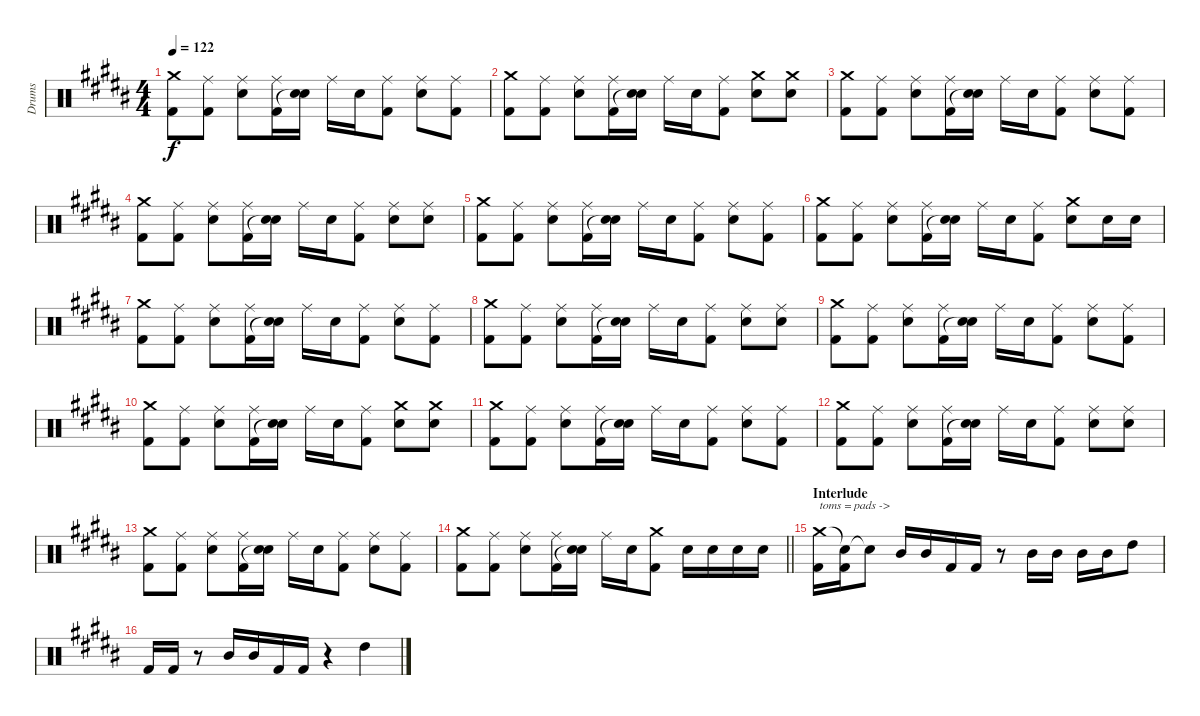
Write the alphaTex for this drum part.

\track ("Drums" "Drums") {instrument percussion}
\staff {score}
\articulation defaults
\ts (4 4)
\tempo 122
\clef neutral
\ks g#minor
("Crash medium (hit)" "Kick (hit) 2").8{dy f} ("Ride (middle)" "Kick (hit) 2").8 ("Ride (middle)" "Electric Snare (hit)").8 ("Ride (middle)" "Kick (hit) 2").16 ("Electric Snare (hit)" "Snare (hit)"{t}).16 "Ride (middle)".16 "Electric Snare (hit)".16 ("Ride (middle)" "Kick (hit) 2").8 ("Ride (middle)" "Electric Snare (hit)").8 ("Ride (middle)" "Kick (hit) 2").8 |
("Crash medium (hit)" "Kick (hit) 2").8 ("Ride (middle)" "Kick (hit) 2").8 ("Ride (middle)" "Electric Snare (hit)").8 ("Ride (middle)" "Kick (hit) 2").16 ("Electric Snare (hit)" "Snare (hit)"{t}).16 "Ride (middle)".16 "Electric Snare (hit)".16 ("Ride (middle)" "Kick (hit) 2").8 ("Crash medium (hit)" "Electric Snare (hit)").8 ("Crash medium (hit)" "Electric Snare (hit)").8 |
("Crash medium (hit)" "Kick (hit) 2").8 ("Ride (middle)" "Kick (hit) 2").8 ("Ride (middle)" "Electric Snare (hit)").8 ("Ride (middle)" "Kick (hit) 2").16 ("Electric Snare (hit)" "Snare (hit)"{t}).16 "Ride (middle)".16 "Electric Snare (hit)".16 ("Ride (middle)" "Kick (hit) 2").8 ("Ride (middle)" "Electric Snare (hit)").8 ("Ride (middle)" "Kick (hit) 2").8 |
("Crash medium (hit)" "Kick (hit) 2").8 ("Ride (middle)" "Kick (hit) 2").8 ("Ride (middle)" "Electric Snare (hit)").8 ("Ride (middle)" "Kick (hit) 2").16 ("Electric Snare (hit)" "Snare (hit)"{t}).16 "Ride (middle)".16 "Electric Snare (hit)".16 ("Ride (middle)" "Kick (hit) 2").8 ("Ride (middle)" "Electric Snare (hit)").8 ("Ride (middle)" "Electric Snare (hit)").8 |
("Crash medium (hit)" "Kick (hit) 2").8 ("Ride (middle)" "Kick (hit) 2").8 ("Ride (middle)" "Electric Snare (hit)").8 ("Ride (middle)" "Kick (hit) 2").16 ("Electric Snare (hit)" "Snare (hit)"{t}).16 "Ride (middle)".16 "Electric Snare (hit)".16 ("Ride (middle)" "Kick (hit) 2").8 ("Ride (middle)" "Electric Snare (hit)").8 ("Ride (middle)" "Kick (hit) 2").8 |
("Crash medium (hit)" "Kick (hit) 2").8 ("Ride (middle)" "Kick (hit) 2").8 ("Ride (middle)" "Electric Snare (hit)").8 ("Ride (middle)" "Kick (hit) 2").16 ("Electric Snare (hit)" "Snare (hit)"{t}).16 "Ride (middle)".16 "Electric Snare (hit)".16 ("Ride (middle)" "Kick (hit) 2").8 ("Crash medium (hit)" "Electric Snare (hit)").8 "Electric Snare (hit)".16 "Electric Snare (hit)".16 |
("Crash medium (hit)" "Kick (hit) 2").8 ("Ride (middle)" "Kick (hit) 2").8 ("Ride (middle)" "Electric Snare (hit)").8 ("Ride (middle)" "Kick (hit) 2").16 ("Electric Snare (hit)" "Snare (hit)"{t}).16 "Ride (middle)".16 "Electric Snare (hit)".16 ("Ride (middle)" "Kick (hit) 2").8 ("Ride (middle)" "Electric Snare (hit)").8 ("Ride (middle)" "Kick (hit) 2").8 |
("Crash medium (hit)" "Kick (hit) 2").8 ("Ride (middle)" "Kick (hit) 2").8 ("Ride (middle)" "Electric Snare (hit)").8 ("Ride (middle)" "Kick (hit) 2").16 ("Electric Snare (hit)" "Snare (hit)"{t}).16 "Ride (middle)".16 "Electric Snare (hit)".16 ("Ride (middle)" "Kick (hit) 2").8 ("Ride (middle)" "Electric Snare (hit)").8 ("Ride (middle)" "Electric Snare (hit)").8 |
("Crash medium (hit)" "Kick (hit) 2").8 ("Ride (middle)" "Kick (hit) 2").8 ("Ride (middle)" "Electric Snare (hit)").8 ("Ride (middle)" "Kick (hit) 2").16 ("Electric Snare (hit)" "Snare (hit)"{t}).16 "Ride (middle)".16 "Electric Snare (hit)".16 ("Ride (middle)" "Kick (hit) 2").8 ("Ride (middle)" "Electric Snare (hit)").8 ("Ride (middle)" "Kick (hit) 2").8 |
("Crash medium (hit)" "Kick (hit) 2").8 ("Ride (middle)" "Kick (hit) 2").8 ("Ride (middle)" "Electric Snare (hit)").8 ("Ride (middle)" "Kick (hit) 2").16 ("Electric Snare (hit)" "Snare (hit)"{t}).16 "Ride (middle)".16 "Electric Snare (hit)".16 ("Ride (middle)" "Kick (hit) 2").8 ("Crash medium (hit)" "Electric Snare (hit)").8 ("Crash medium (hit)" "Electric Snare (hit)").8 |
("Crash medium (hit)" "Kick (hit) 2").8 ("Ride (middle)" "Kick (hit) 2").8 ("Ride (middle)" "Electric Snare (hit)").8 ("Ride (middle)" "Kick (hit) 2").16 ("Electric Snare (hit)" "Snare (hit)"{t}).16 "Ride (middle)".16 "Electric Snare (hit)".16 ("Ride (middle)" "Kick (hit) 2").8 ("Ride (middle)" "Electric Snare (hit)").8 ("Ride (middle)" "Kick (hit) 2").8 |
("Crash medium (hit)" "Kick (hit) 2").8 ("Ride (middle)" "Kick (hit) 2").8 ("Ride (middle)" "Electric Snare (hit)").8 ("Ride (middle)" "Kick (hit) 2").16 ("Electric Snare (hit)" "Snare (hit)"{t}).16 "Ride (middle)".16 "Electric Snare (hit)".16 ("Ride (middle)" "Kick (hit) 2").8 ("Ride (middle)" "Electric Snare (hit)").8 ("Ride (middle)" "Electric Snare (hit)").8 |
("Crash medium (hit)" "Kick (hit) 2").8 ("Ride (middle)" "Kick (hit) 2").8 ("Ride (middle)" "Electric Snare (hit)").8 ("Ride (middle)" "Kick (hit) 2").16 ("Electric Snare (hit)" "Snare (hit)"{t}).16 "Ride (middle)".16 "Electric Snare (hit)".16 ("Ride (middle)" "Kick (hit) 2").8 ("Ride (middle)" "Electric Snare (hit)").8 ("Ride (middle)" "Kick (hit) 2").8 |
\barLineRight lightlight
("Crash medium (hit)" "Kick (hit) 2").8 ("Ride (middle)" "Kick (hit) 2").8 ("Ride (middle)" "Electric Snare (hit)").8 ("Ride (middle)" "Kick (hit) 2").16 ("Electric Snare (hit)" "Snare (hit)"{t}).16 "Ride (middle)".16 "Electric Snare (hit)".16 ("Crash medium (hit)" "Kick (hit) 2").8 "Electric Snare (hit)".16 "Electric Snare (hit)".16 "Electric Snare (hit)".16 "Electric Snare (hit)".16 |
\section ("" "Interlude")
("Crash medium (hit)" "Kick (hit) 2").16{txt "toms = pads ->"} ("Snare (hit)"{t} "Kick (hit) 2").16 "Snare (hit)"{t}.8 "Mid Tom (hit)".16 "Mid Tom (hit)".16 "Kick (hit) 2".16 "Kick (hit) 2".16 r.8 "Mid Tom (hit)".16 "Mid Tom (hit)".16 "Mid Tom (hit)".16 "Mid Tom (hit)".16 "High Tom (hit)".8 |
"Kick (hit) 2".16 "Kick (hit) 2".16 r.8 "Mid Tom (hit)".16 "Mid Tom (hit)".16 "Kick (hit) 2".16 "Kick (hit) 2".16 r.4 "High Tom (hit)".4
